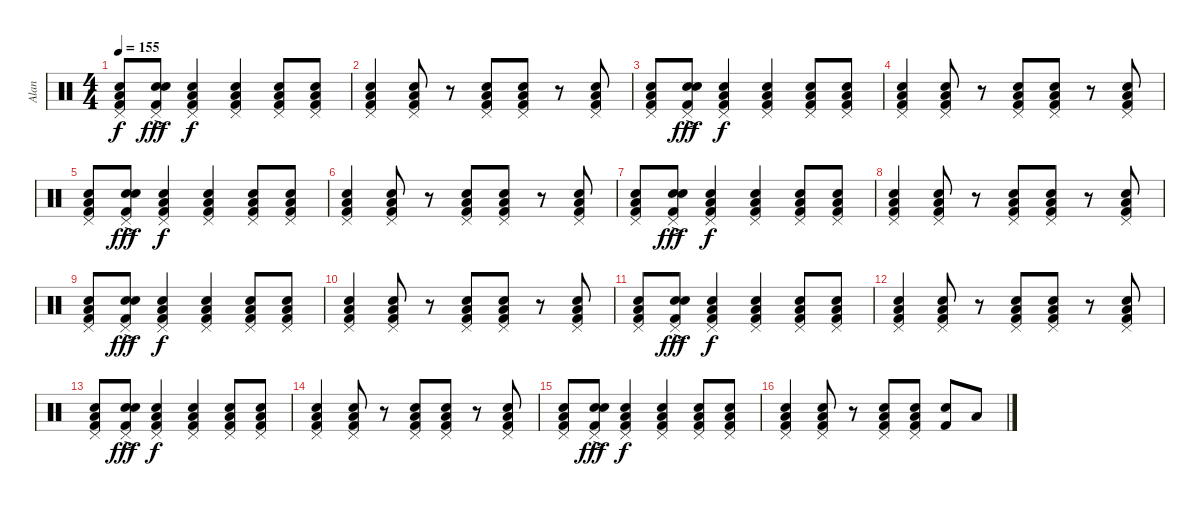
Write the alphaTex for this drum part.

\track ("Alan" "Alan") {instrument percussion}
\staff {score}
\articulation defaults
\ts (4 4)
\tempo 155
\clef neutral
\ks c
("Kick (hit) 2" "Low Floor Tom (hit)" "Snare (hit) 2" "Pedal Hi-Hat (hit)").8{dy f} ("Kick (hit) 2"{ac} "Snare (hit) 2" "Snare (hit) 2" "Pedal Hi-Hat (hit)").8{dy fff volume 16} ("Kick (hit) 2" "Low Floor Tom (hit)" "Snare (hit) 2" "Pedal Hi-Hat (hit)").4{dy f volume 11} ("Kick (hit) 2" "Low Floor Tom (hit)" "Snare (hit) 2" "Pedal Hi-Hat (hit)").4 ("Kick (hit) 2" "Low Floor Tom (hit)" "Snare (hit) 2" "Pedal Hi-Hat (hit)").8 ("Kick (hit) 2" "Low Floor Tom (hit)" "Snare (hit) 2" "Pedal Hi-Hat (hit)").8 |
("Kick (hit) 2" "Low Floor Tom (hit)" "Snare (hit) 2" "Pedal Hi-Hat (hit)").4 ("Kick (hit) 2" "Low Floor Tom (hit)" "Snare (hit) 2" "Pedal Hi-Hat (hit)").8 r.8 ("Kick (hit) 2" "Low Floor Tom (hit)" "Snare (hit) 2" "Pedal Hi-Hat (hit)").8 ("Kick (hit) 2" "Low Floor Tom (hit)" "Snare (hit) 2" "Pedal Hi-Hat (hit)").8 r.8 ("Kick (hit) 2" "Low Floor Tom (hit)" "Snare (hit) 2" "Pedal Hi-Hat (hit)").8 |
("Kick (hit) 2" "Low Floor Tom (hit)" "Snare (hit) 2" "Pedal Hi-Hat (hit)").8 ("Kick (hit) 2"{ac} "Snare (hit) 2" "Snare (hit) 2" "Pedal Hi-Hat (hit)").8{dy fff volume 16} ("Kick (hit) 2" "Low Floor Tom (hit)" "Snare (hit) 2" "Pedal Hi-Hat (hit)").4{dy f volume 11} ("Kick (hit) 2" "Low Floor Tom (hit)" "Snare (hit) 2" "Pedal Hi-Hat (hit)").4 ("Kick (hit) 2" "Low Floor Tom (hit)" "Snare (hit) 2" "Pedal Hi-Hat (hit)").8 ("Kick (hit) 2" "Low Floor Tom (hit)" "Snare (hit) 2" "Pedal Hi-Hat (hit)").8 |
("Kick (hit) 2" "Low Floor Tom (hit)" "Snare (hit) 2" "Pedal Hi-Hat (hit)").4 ("Kick (hit) 2" "Low Floor Tom (hit)" "Snare (hit) 2" "Pedal Hi-Hat (hit)").8 r.8 ("Kick (hit) 2" "Low Floor Tom (hit)" "Snare (hit) 2" "Pedal Hi-Hat (hit)").8 ("Kick (hit) 2" "Low Floor Tom (hit)" "Snare (hit) 2" "Pedal Hi-Hat (hit)").8 r.8 ("Kick (hit) 2" "Low Floor Tom (hit)" "Snare (hit) 2" "Pedal Hi-Hat (hit)").8 |
("Kick (hit) 2" "Low Floor Tom (hit)" "Snare (hit) 2" "Pedal Hi-Hat (hit)").8 ("Kick (hit) 2"{ac} "Snare (hit) 2" "Snare (hit) 2" "Pedal Hi-Hat (hit)").8{dy fff volume 16} ("Kick (hit) 2" "Low Floor Tom (hit)" "Snare (hit) 2" "Pedal Hi-Hat (hit)").4{dy f volume 11} ("Kick (hit) 2" "Low Floor Tom (hit)" "Snare (hit) 2" "Pedal Hi-Hat (hit)").4 ("Kick (hit) 2" "Low Floor Tom (hit)" "Snare (hit) 2" "Pedal Hi-Hat (hit)").8 ("Kick (hit) 2" "Low Floor Tom (hit)" "Snare (hit) 2" "Pedal Hi-Hat (hit)").8 |
("Kick (hit) 2" "Low Floor Tom (hit)" "Snare (hit) 2" "Pedal Hi-Hat (hit)").4 ("Kick (hit) 2" "Low Floor Tom (hit)" "Snare (hit) 2" "Pedal Hi-Hat (hit)").8 r.8 ("Kick (hit) 2" "Low Floor Tom (hit)" "Snare (hit) 2" "Pedal Hi-Hat (hit)").8 ("Kick (hit) 2" "Low Floor Tom (hit)" "Snare (hit) 2" "Pedal Hi-Hat (hit)").8 r.8 ("Kick (hit) 2" "Low Floor Tom (hit)" "Snare (hit) 2" "Pedal Hi-Hat (hit)").8 |
("Kick (hit) 2" "Low Floor Tom (hit)" "Snare (hit) 2" "Pedal Hi-Hat (hit)").8 ("Kick (hit) 2"{ac} "Snare (hit) 2" "Snare (hit) 2" "Pedal Hi-Hat (hit)").8{dy fff volume 16} ("Kick (hit) 2" "Low Floor Tom (hit)" "Snare (hit) 2" "Pedal Hi-Hat (hit)").4{dy f volume 11} ("Kick (hit) 2" "Low Floor Tom (hit)" "Snare (hit) 2" "Pedal Hi-Hat (hit)").4 ("Kick (hit) 2" "Low Floor Tom (hit)" "Snare (hit) 2" "Pedal Hi-Hat (hit)").8 ("Kick (hit) 2" "Low Floor Tom (hit)" "Snare (hit) 2" "Pedal Hi-Hat (hit)").8 |
("Kick (hit) 2" "Low Floor Tom (hit)" "Snare (hit) 2" "Pedal Hi-Hat (hit)").4 ("Kick (hit) 2" "Low Floor Tom (hit)" "Snare (hit) 2" "Pedal Hi-Hat (hit)").8 r.8 ("Kick (hit) 2" "Low Floor Tom (hit)" "Snare (hit) 2" "Pedal Hi-Hat (hit)").8 ("Kick (hit) 2" "Low Floor Tom (hit)" "Snare (hit) 2" "Pedal Hi-Hat (hit)").8 r.8 ("Kick (hit) 2" "Low Floor Tom (hit)" "Snare (hit) 2" "Pedal Hi-Hat (hit)").8 |
("Kick (hit) 2" "Low Floor Tom (hit)" "Snare (hit) 2" "Pedal Hi-Hat (hit)").8 ("Kick (hit) 2"{ac} "Snare (hit) 2" "Snare (hit) 2" "Pedal Hi-Hat (hit)").8{dy fff volume 16} ("Kick (hit) 2" "Low Floor Tom (hit)" "Snare (hit) 2" "Pedal Hi-Hat (hit)").4{dy f volume 11} ("Kick (hit) 2" "Low Floor Tom (hit)" "Snare (hit) 2" "Pedal Hi-Hat (hit)").4 ("Kick (hit) 2" "Low Floor Tom (hit)" "Snare (hit) 2" "Pedal Hi-Hat (hit)").8 ("Kick (hit) 2" "Low Floor Tom (hit)" "Snare (hit) 2" "Pedal Hi-Hat (hit)").8 |
("Kick (hit) 2" "Low Floor Tom (hit)" "Snare (hit) 2" "Pedal Hi-Hat (hit)").4 ("Kick (hit) 2" "Low Floor Tom (hit)" "Snare (hit) 2" "Pedal Hi-Hat (hit)").8 r.8 ("Kick (hit) 2" "Low Floor Tom (hit)" "Snare (hit) 2" "Pedal Hi-Hat (hit)").8 ("Kick (hit) 2" "Low Floor Tom (hit)" "Snare (hit) 2" "Pedal Hi-Hat (hit)").8 r.8 ("Kick (hit) 2" "Low Floor Tom (hit)" "Snare (hit) 2" "Pedal Hi-Hat (hit)").8 |
("Kick (hit) 2" "Low Floor Tom (hit)" "Snare (hit) 2" "Pedal Hi-Hat (hit)").8 ("Kick (hit) 2"{ac} "Snare (hit) 2" "Snare (hit) 2" "Pedal Hi-Hat (hit)").8{dy fff volume 16} ("Kick (hit) 2" "Low Floor Tom (hit)" "Snare (hit) 2" "Pedal Hi-Hat (hit)").4{dy f volume 11} ("Kick (hit) 2" "Low Floor Tom (hit)" "Snare (hit) 2" "Pedal Hi-Hat (hit)").4 ("Kick (hit) 2" "Low Floor Tom (hit)" "Snare (hit) 2" "Pedal Hi-Hat (hit)").8 ("Kick (hit) 2" "Low Floor Tom (hit)" "Snare (hit) 2" "Pedal Hi-Hat (hit)").8 |
("Kick (hit) 2" "Low Floor Tom (hit)" "Snare (hit) 2" "Pedal Hi-Hat (hit)").4 ("Kick (hit) 2" "Low Floor Tom (hit)" "Snare (hit) 2" "Pedal Hi-Hat (hit)").8 r.8 ("Kick (hit) 2" "Low Floor Tom (hit)" "Snare (hit) 2" "Pedal Hi-Hat (hit)").8 ("Kick (hit) 2" "Low Floor Tom (hit)" "Snare (hit) 2" "Pedal Hi-Hat (hit)").8 r.8 ("Kick (hit) 2" "Low Floor Tom (hit)" "Snare (hit) 2" "Pedal Hi-Hat (hit)").8 |
("Kick (hit) 2" "Low Floor Tom (hit)" "Snare (hit) 2" "Pedal Hi-Hat (hit)").8 ("Kick (hit) 2"{ac} "Snare (hit) 2" "Snare (hit) 2" "Pedal Hi-Hat (hit)").8{dy fff volume 16} ("Kick (hit) 2" "Low Floor Tom (hit)" "Snare (hit) 2" "Pedal Hi-Hat (hit)").4{dy f volume 11} ("Kick (hit) 2" "Low Floor Tom (hit)" "Snare (hit) 2" "Pedal Hi-Hat (hit)").4 ("Kick (hit) 2" "Low Floor Tom (hit)" "Snare (hit) 2" "Pedal Hi-Hat (hit)").8 ("Kick (hit) 2" "Low Floor Tom (hit)" "Snare (hit) 2" "Pedal Hi-Hat (hit)").8 |
("Kick (hit) 2" "Low Floor Tom (hit)" "Snare (hit) 2" "Pedal Hi-Hat (hit)").4 ("Kick (hit) 2" "Low Floor Tom (hit)" "Snare (hit) 2" "Pedal Hi-Hat (hit)").8 r.8 ("Kick (hit) 2" "Low Floor Tom (hit)" "Snare (hit) 2" "Pedal Hi-Hat (hit)").8 ("Kick (hit) 2" "Low Floor Tom (hit)" "Snare (hit) 2" "Pedal Hi-Hat (hit)").8 r.8 ("Kick (hit) 2" "Low Floor Tom (hit)" "Snare (hit) 2" "Pedal Hi-Hat (hit)").8 |
("Kick (hit) 2" "Low Floor Tom (hit)" "Snare (hit) 2" "Pedal Hi-Hat (hit)").8 ("Kick (hit) 2"{ac} "Snare (hit) 2" "Snare (hit) 2" "Pedal Hi-Hat (hit)").8{dy fff volume 16} ("Kick (hit) 2" "Low Floor Tom (hit)" "Snare (hit) 2" "Pedal Hi-Hat (hit)").4{dy f volume 11} ("Kick (hit) 2" "Low Floor Tom (hit)" "Snare (hit) 2" "Pedal Hi-Hat (hit)").4 ("Kick (hit) 2" "Low Floor Tom (hit)" "Snare (hit) 2" "Pedal Hi-Hat (hit)").8 ("Kick (hit) 2" "Low Floor Tom (hit)" "Snare (hit) 2" "Pedal Hi-Hat (hit)").8 |
("Kick (hit) 2" "Low Floor Tom (hit)" "Snare (hit) 2" "Pedal Hi-Hat (hit)").4 ("Kick (hit) 2" "Low Floor Tom (hit)" "Snare (hit) 2" "Pedal Hi-Hat (hit)").8 r.8 ("Kick (hit) 2" "Low Floor Tom (hit)" "Snare (hit) 2" "Pedal Hi-Hat (hit)").8 ("Kick (hit) 2" "Low Floor Tom (hit)" "Snare (hit) 2" "Pedal Hi-Hat (hit)").8 ("Kick (hit) 2" "Snare (hit) 2").8 "Low Tom (hit)".8
